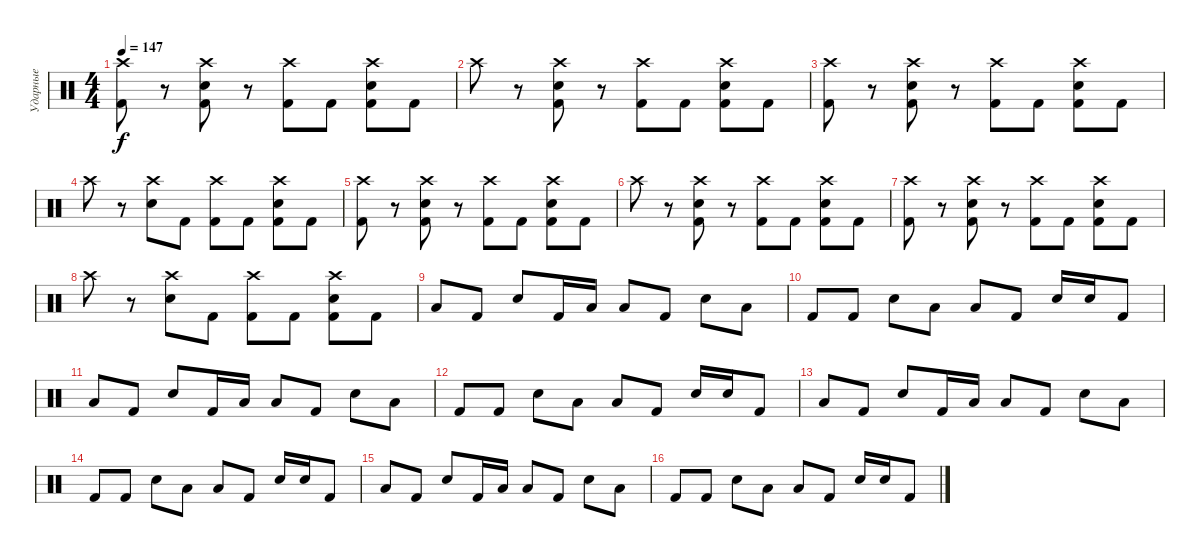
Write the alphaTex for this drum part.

\track ("Ударные" "Ударные") {instrument percussion}
\staff {score}
\articulation defaults
\ts (4 4)
\tempo 147
\clef neutral
\ks c
("Crash high (hit)" "Kick (hit) 2").8{dy f} r.8 ("Crash high (hit)" "Electric Snare (hit)" "Kick (hit) 2").8 r.8 ("Crash high (hit)" "Kick (hit) 2").8 "Kick (hit) 2".8 ("Crash high (hit)" "Electric Snare (hit)" "Kick (hit) 2").8 "Kick (hit) 2".8 |
"Crash high (hit)".8 r.8 ("Crash high (hit)" "Electric Snare (hit)" "Kick (hit) 2").8 r.8 ("Crash high (hit)" "Kick (hit) 2").8 "Kick (hit) 2".8 ("Crash high (hit)" "Electric Snare (hit)" "Kick (hit) 2").8 "Kick (hit) 2".8 |
("Crash high (hit)" "Kick (hit) 2").8 r.8 ("Crash high (hit)" "Electric Snare (hit)" "Kick (hit) 2").8 r.8 ("Crash high (hit)" "Kick (hit) 2").8 "Kick (hit) 2".8 ("Crash high (hit)" "Electric Snare (hit)" "Kick (hit) 2").8 "Kick (hit) 2".8 |
"Crash high (hit)".8 r.8 ("Crash high (hit)" "Electric Snare (hit)").8 "Kick (hit) 2".8 ("Crash high (hit)" "Kick (hit) 2").8 "Kick (hit) 2".8 ("Crash high (hit)" "Electric Snare (hit)" "Kick (hit) 2").8 "Kick (hit) 2".8 |
("Crash high (hit)" "Kick (hit) 2").8 r.8 ("Crash high (hit)" "Electric Snare (hit)" "Kick (hit) 2").8 r.8 ("Crash high (hit)" "Kick (hit) 2").8 "Kick (hit) 2".8 ("Crash high (hit)" "Electric Snare (hit)" "Kick (hit) 2").8 "Kick (hit) 2".8 |
"Crash high (hit)".8 r.8 ("Crash high (hit)" "Electric Snare (hit)" "Kick (hit) 2").8 r.8 ("Crash high (hit)" "Kick (hit) 2").8 "Kick (hit) 2".8 ("Crash high (hit)" "Electric Snare (hit)" "Kick (hit) 2").8 "Kick (hit) 2".8 |
("Crash high (hit)" "Kick (hit) 2").8 r.8 ("Crash high (hit)" "Electric Snare (hit)" "Kick (hit) 2").8 r.8 ("Crash high (hit)" "Kick (hit) 2").8 "Kick (hit) 2".8 ("Crash high (hit)" "Electric Snare (hit)" "Kick (hit) 2").8 "Kick (hit) 2".8 |
"Crash high (hit)".8 r.8 ("Crash high (hit)" "Electric Snare (hit)").8 "Kick (hit) 2".8 ("Crash high (hit)" "Kick (hit) 2").8 "Kick (hit) 2".8 ("Crash high (hit)" "Electric Snare (hit)" "Kick (hit) 2").8 "Kick (hit) 2".8 |
"Low Floor Tom (hit)".8 "Kick (hit) 2".8 "Electric Snare (hit)".8 "Kick (hit) 2".16 "Low Floor Tom (hit)".16 "Low Floor Tom (hit)".8 "Kick (hit) 2".8 "Electric Snare (hit)".8 "Low Floor Tom (hit)".8 |
"Kick (hit) 2".8 "Kick (hit) 2".8 "Electric Snare (hit)".8 "Low Floor Tom (hit)".8 "Low Floor Tom (hit)".8 "Kick (hit) 2".8 "Electric Snare (hit)".16 "Electric Snare (hit)".16 "Kick (hit) 2".8 |
"Low Floor Tom (hit)".8 "Kick (hit) 2".8 "Electric Snare (hit)".8 "Kick (hit) 2".16 "Low Floor Tom (hit)".16 "Low Floor Tom (hit)".8 "Kick (hit) 2".8 "Electric Snare (hit)".8 "Low Floor Tom (hit)".8 |
"Kick (hit) 2".8 "Kick (hit) 2".8 "Electric Snare (hit)".8 "Low Floor Tom (hit)".8 "Low Floor Tom (hit)".8 "Kick (hit) 2".8 "Electric Snare (hit)".16 "Electric Snare (hit)".16 "Kick (hit) 2".8 |
"Low Floor Tom (hit)".8 "Kick (hit) 2".8 "Electric Snare (hit)".8 "Kick (hit) 2".16 "Low Floor Tom (hit)".16 "Low Floor Tom (hit)".8 "Kick (hit) 2".8 "Electric Snare (hit)".8 "Low Floor Tom (hit)".8 |
"Kick (hit) 2".8 "Kick (hit) 2".8 "Electric Snare (hit)".8 "Low Floor Tom (hit)".8 "Low Floor Tom (hit)".8 "Kick (hit) 2".8 "Electric Snare (hit)".16 "Electric Snare (hit)".16 "Kick (hit) 2".8 |
"Low Floor Tom (hit)".8 "Kick (hit) 2".8 "Electric Snare (hit)".8 "Kick (hit) 2".16 "Low Floor Tom (hit)".16 "Low Floor Tom (hit)".8 "Kick (hit) 2".8 "Electric Snare (hit)".8 "Low Floor Tom (hit)".8 |
"Kick (hit) 2".8 "Kick (hit) 2".8 "Electric Snare (hit)".8 "Low Floor Tom (hit)".8 "Low Floor Tom (hit)".8 "Kick (hit) 2".8 "Electric Snare (hit)".16 "Electric Snare (hit)".16 "Kick (hit) 2".8
